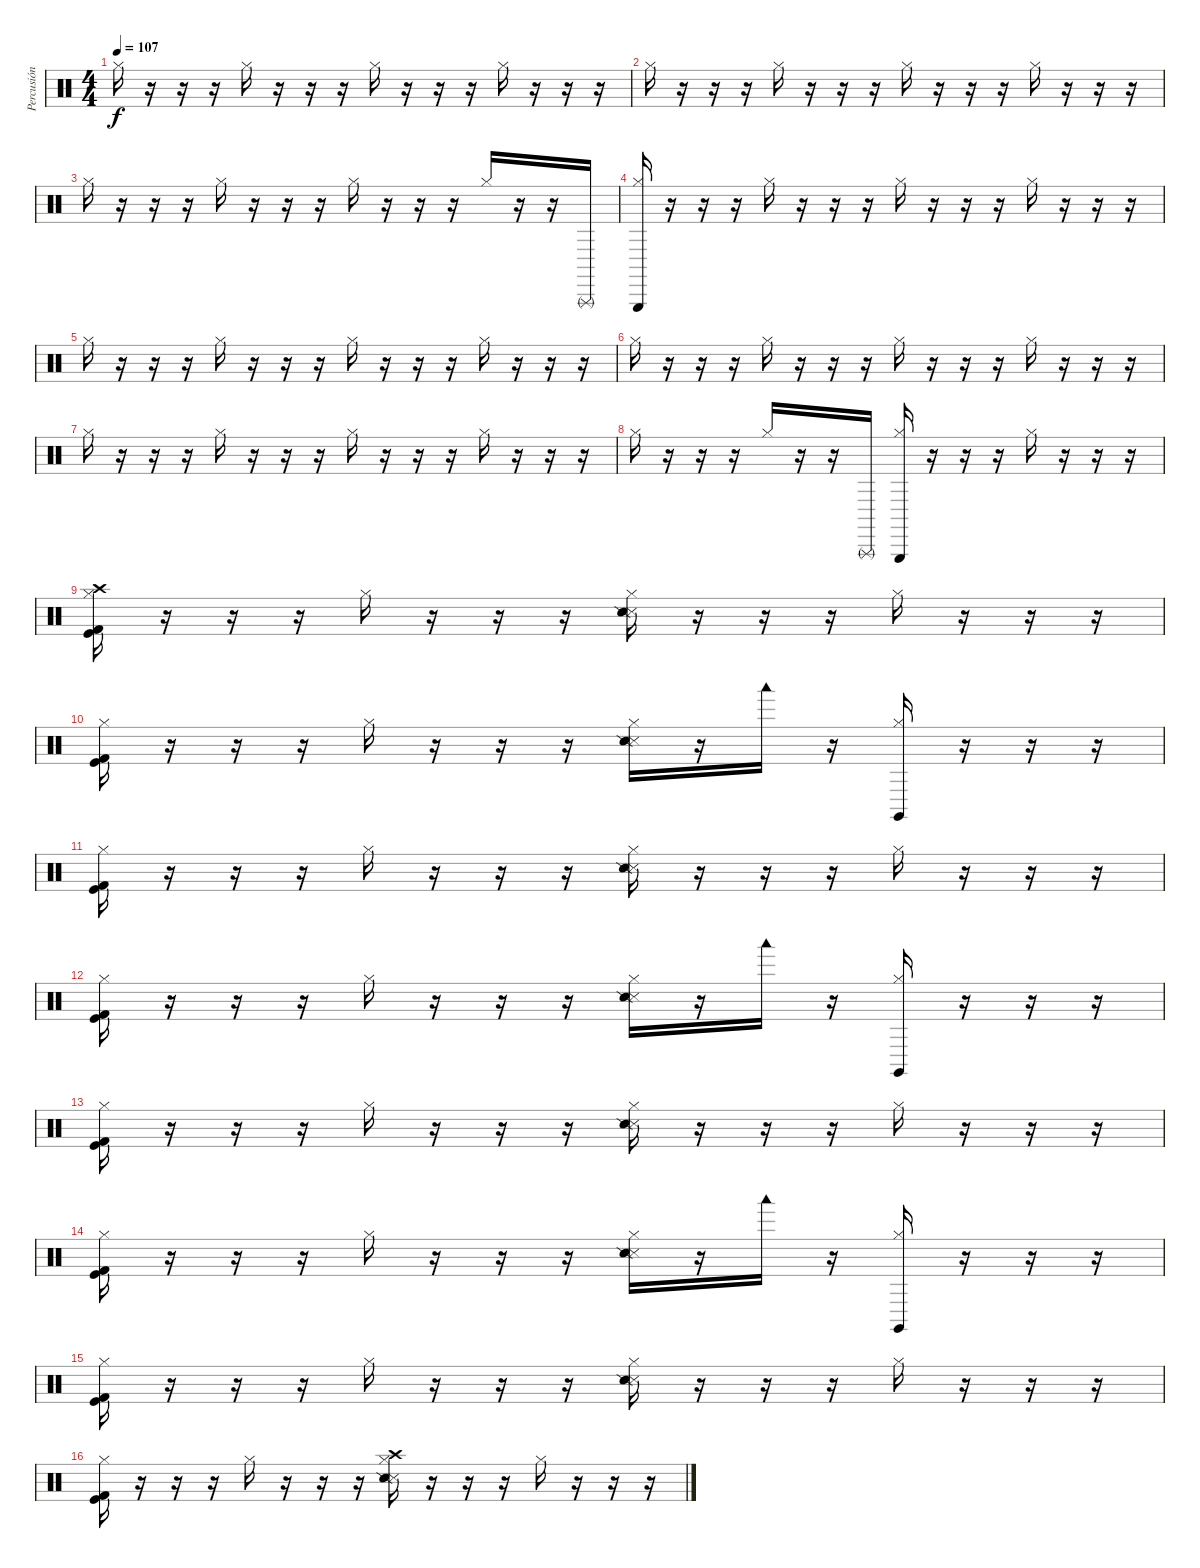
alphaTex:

\track ("Percusión" "Percusión") {instrument percussion}
\staff {score}
\articulation defaults
\ts (4 4)
\tempo 107
\clef neutral
\ks c "Hi-Hat (closed)".16{dy f}
r.16 r.16 r.16 "Hi-Hat (closed)".16 r.16 r.16 r.16 "Hi-Hat (closed)".16 r.16 r.16 r.16 "Hi-Hat (closed)".16 r.16 r.16 r.16 |
"Hi-Hat (closed)".16 r.16 r.16 r.16 "Hi-Hat (closed)".16 r.16 r.16 r.16 "Hi-Hat (closed)".16 r.16 r.16 r.16 "Hi-Hat (closed)".16 r.16 r.16 r.16 |
"Hi-Hat (closed)".16 r.16 r.16 r.16 "Hi-Hat (closed)".16 r.16 r.16 r.16 "Hi-Hat (closed)".16 r.16 r.16 r.16 "Hi-Hat (closed)".16 r.16 r.16 "Triangle (rnute)".16 |
("Hi-Hat (closed)" "Triangle (hit)").16 r.16 r.16 r.16 "Hi-Hat (closed)".16 r.16 r.16 r.16 "Hi-Hat (closed)".16 r.16 r.16 r.16 "Hi-Hat (closed)".16 r.16 r.16 r.16 |
"Hi-Hat (closed)".16 r.16 r.16 r.16 "Hi-Hat (closed)".16 r.16 r.16 r.16 "Hi-Hat (closed)".16 r.16 r.16 r.16 "Hi-Hat (closed)".16 r.16 r.16 r.16 |
"Hi-Hat (closed)".16 r.16 r.16 r.16 "Hi-Hat (closed)".16 r.16 r.16 r.16 "Hi-Hat (closed)".16 r.16 r.16 r.16 "Hi-Hat (closed)".16 r.16 r.16 r.16 |
"Hi-Hat (closed)".16 r.16 r.16 r.16 "Hi-Hat (closed)".16 r.16 r.16 r.16 "Hi-Hat (closed)".16 r.16 r.16 r.16 "Hi-Hat (closed)".16 r.16 r.16 r.16 |
"Hi-Hat (closed)".16 r.16 r.16 r.16 "Hi-Hat (closed)".16 r.16 r.16 "Triangle (rnute)".16 ("Hi-Hat (closed)" "Triangle (hit)").16 r.16 r.16 r.16 "Hi-Hat (closed)".16 r.16 r.16 r.16 |
("Hi-Hat (closed)" "Crash high (hit)" "Kick (hit) 2" "Kick (hit)").16 r.16 r.16 r.16 "Hi-Hat (closed)".16 r.16 r.16 r.16 ("Hi-Hat (closed)" "Snare (side stick) 3" "Snare (side stick) 2").16 r.16 r.16 r.16 "Hi-Hat (closed)".16 r.16 r.16 r.16 |
("Hi-Hat (closed)" "Kick (hit) 2" "Kick (hit)").16 r.16 r.16 r.16 "Hi-Hat (closed)".16 r.16 r.16 r.16 ("Hi-Hat (closed)" "Snare (side stick) 3" "Snare (side stick) 2").16 r.16 "Woodblock low (hit)".16 r.16 ("Hi-Hat (closed)" "Claves (hit)").16 r.16 r.16 r.16 |
("Hi-Hat (closed)" "Kick (hit) 2" "Kick (hit)").16 r.16 r.16 r.16 "Hi-Hat (closed)".16 r.16 r.16 r.16 ("Hi-Hat (closed)" "Snare (side stick) 3" "Snare (side stick) 2").16 r.16 r.16 r.16 "Hi-Hat (closed)".16 r.16 r.16 r.16 |
("Hi-Hat (closed)" "Kick (hit) 2" "Kick (hit)").16 r.16 r.16 r.16 "Hi-Hat (closed)".16 r.16 r.16 r.16 ("Hi-Hat (closed)" "Snare (side stick) 3" "Snare (side stick) 2").16 r.16 "Woodblock low (hit)".16 r.16 ("Hi-Hat (closed)" "Claves (hit)").16 r.16 r.16 r.16 |
("Hi-Hat (closed)" "Kick (hit) 2" "Kick (hit)").16 r.16 r.16 r.16 "Hi-Hat (closed)".16 r.16 r.16 r.16 ("Hi-Hat (closed)" "Snare (side stick) 3" "Snare (side stick) 2").16 r.16 r.16 r.16 "Hi-Hat (closed)".16 r.16 r.16 r.16 |
("Hi-Hat (closed)" "Kick (hit) 2" "Kick (hit)").16 r.16 r.16 r.16 "Hi-Hat (closed)".16 r.16 r.16 r.16 ("Hi-Hat (closed)" "Snare (side stick) 3" "Snare (side stick) 2").16 r.16 "Woodblock low (hit)".16 r.16 ("Hi-Hat (closed)" "Claves (hit)").16 r.16 r.16 r.16 |
("Hi-Hat (closed)" "Kick (hit) 2" "Kick (hit)").16 r.16 r.16 r.16 "Hi-Hat (closed)".16 r.16 r.16 r.16 ("Hi-Hat (closed)" "Snare (side stick) 3" "Snare (side stick) 2").16 r.16 r.16 r.16 "Hi-Hat (closed)".16 r.16 r.16 r.16 |
("Hi-Hat (closed)" "Kick (hit) 2" "Kick (hit)").16 r.16 r.16 r.16 "Hi-Hat (closed)".16 r.16 r.16 r.16 ("Hi-Hat (closed)" "Crash high (hit)" "Snare (side stick) 3" "Snare (side stick) 2").16 r.16 r.16 r.16 "Hi-Hat (closed)".16 r.16 r.16 r.16
